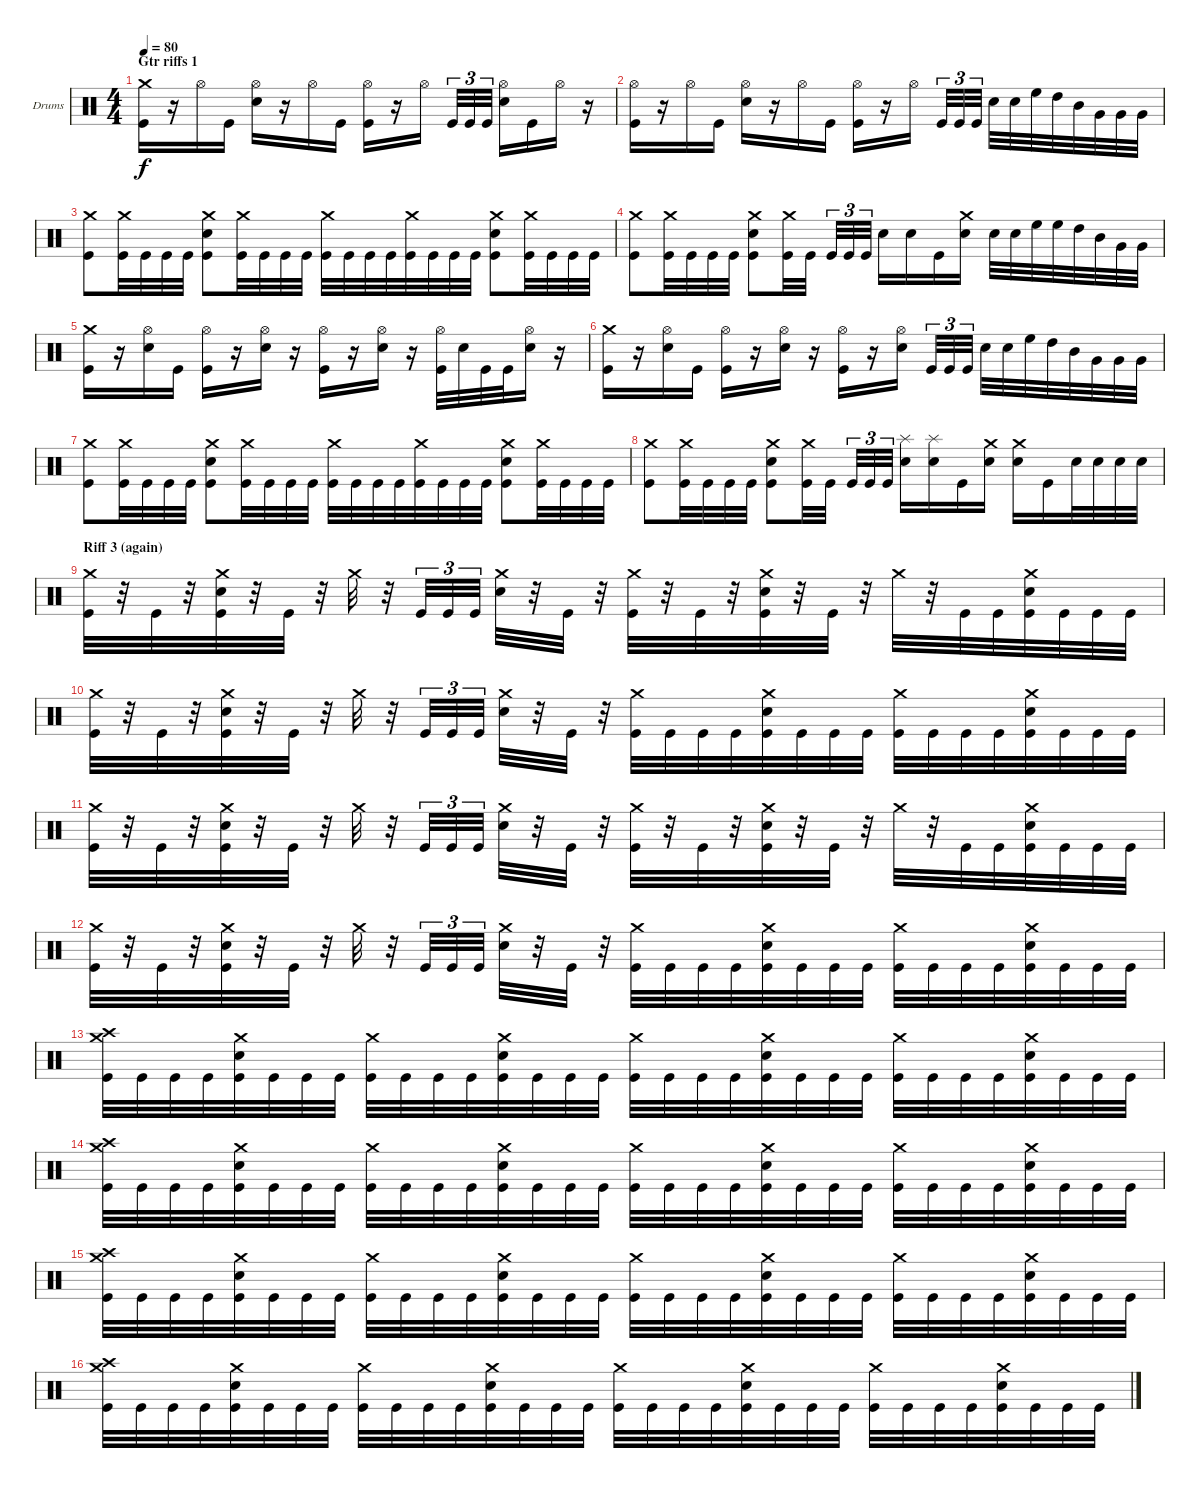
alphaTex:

\bracketExtendMode groupsimilarinstruments
\firstSystemTrackNameOrientation horizontal
\otherSystemsTrackNameOrientation horizontal
\track ("Drumkit" "Drums") {instrument percussion}
\staff {score}
\articulation defaults
\ts (4 4)
\section ("" "Gtr riffs 1")
\tempo 80
\clef neutral
\ks c
("Crash medium (hit)" "Kick (hit)").16{dy f} r.16 "Hi-Hat (open)".16 "Kick (hit)".16 ("Hi-Hat (open)" "Snare (hit) 2").16 r.16 "Hi-Hat (open)".16 "Kick (hit)".16 ("Hi-Hat (open)" "Kick (hit)").16 r.16 "Hi-Hat (open)".16 "Kick (hit)".32{tu (3 2)} "Kick (hit)".32{tu (3 2)} "Kick (hit)".32{tu (3 2)} ("Hi-Hat (open)" "Snare (hit) 2").16 "Kick (hit)".16 "Hi-Hat (open)".16 r.16 |
("Hi-Hat (open)" "Kick (hit)").16 r.16 "Hi-Hat (open)".16 "Kick (hit)".16 ("Hi-Hat (open)" "Snare (hit) 2").16 r.16 "Hi-Hat (open)".16 "Kick (hit)".16 ("Hi-Hat (open)" "Kick (hit)").16 r.16 "Hi-Hat (open)".16 "Kick (hit)".32{tu (3 2)} "Kick (hit)".32{tu (3 2)} "Kick (hit)".32{tu (3 2)} "Snare (hit) 2".32 "Snare (hit) 2".32 "High Floor Tom (hit)".32 "High Tom (hit)".32 "Mid Tom (hit)".32 "Very Low Tom (hit)".32 "Very Low Tom (hit)".32 "Very Low Tom (hit)".32 |
("Crash medium (hit)" "Kick (hit)").8 ("Crash medium (hit)" "Kick (hit)").32 "Kick (hit)".32 "Kick (hit)".32 "Kick (hit)".32 ("Crash medium (hit)" "Snare (hit) 2" "Kick (hit)").8 ("Crash medium (hit)" "Kick (hit)").32 "Kick (hit)".32 "Kick (hit)".32 "Kick (hit)".32 ("Crash medium (hit)" "Kick (hit)").32 "Kick (hit)".32 "Kick (hit)".32 "Kick (hit)".32 ("Crash medium (hit)" "Kick (hit)").32 "Kick (hit)".32 "Kick (hit)".32 "Kick (hit)".32 ("Crash medium (hit)" "Snare (hit) 2" "Kick (hit)").8 ("Crash medium (hit)" "Kick (hit)").32 "Kick (hit)".32 "Kick (hit)".32 "Kick (hit)".32 |
("Crash medium (hit)" "Kick (hit)").8 ("Crash medium (hit)" "Kick (hit)").32 "Kick (hit)".32 "Kick (hit)".32 "Kick (hit)".32 ("Crash medium (hit)" "Snare (hit) 2" "Kick (hit)").8 ("Crash medium (hit)" "Kick (hit)").32 "Kick (hit)".32 "Kick (hit)".32{tu (3 2)} "Kick (hit)".32{tu (3 2)} "Kick (hit)".32{tu (3 2)} "Snare (hit) 2".16 "Snare (hit) 2".16 "Kick (hit)".16 ("Crash medium (hit)" "Snare (hit) 2").16 "Snare (hit) 2".32 "Snare (hit) 2".32 "High Floor Tom (hit)".32 "High Floor Tom (hit)".32 "High Tom (hit)".32 "Mid Tom (hit)".32 "Very Low Tom (hit)".32 "Very Low Tom (hit)".32 |
("Crash medium (hit)" "Kick (hit)").16 r.16 ("Hi-Hat (open)" "Snare (hit) 2").16 "Kick (hit)".16 ("Hi-Hat (open)" "Kick (hit)").16 r.16 ("Hi-Hat (open)" "Snare (hit) 2").16 r.16 ("Hi-Hat (open)" "Kick (hit)").16 r.16 ("Hi-Hat (open)" "Snare (hit) 2").16 r.16 ("Hi-Hat (open)" "Kick (hit)").32 "Snare (hit) 2".32 "Kick (hit)".32 "Kick (hit)".32 ("Hi-Hat (open)" "Snare (hit) 2").16 r.16 |
("Crash medium (hit)" "Kick (hit)").16 r.16 ("Hi-Hat (open)" "Snare (hit) 2").16 "Kick (hit)".16 ("Hi-Hat (open)" "Kick (hit)").16 r.16 ("Hi-Hat (open)" "Snare (hit) 2").16 r.16 ("Hi-Hat (open)" "Kick (hit)").16 r.16 ("Hi-Hat (open)" "Snare (hit) 2").16 "Kick (hit)".32{tu (3 2)} "Kick (hit)".32{tu (3 2)} "Kick (hit)".32{tu (3 2)} "Snare (hit) 2".32 "Snare (hit) 2".32 "High Floor Tom (hit)".32 "High Tom (hit)".32 "Mid Tom (hit)".32 "Very Low Tom (hit)".32 "Very Low Tom (hit)".32 "Very Low Tom (hit)".32 |
("Crash medium (hit)" "Kick (hit)").8 ("Crash medium (hit)" "Kick (hit)").32 "Kick (hit)".32 "Kick (hit)".32 "Kick (hit)".32 ("Crash medium (hit)" "Snare (hit) 2" "Kick (hit)").8 ("Crash medium (hit)" "Kick (hit)").32 "Kick (hit)".32 "Kick (hit)".32 "Kick (hit)".32 ("Crash medium (hit)" "Kick (hit)").32 "Kick (hit)".32 "Kick (hit)".32 "Kick (hit)".32 ("Crash medium (hit)" "Kick (hit)").32 "Kick (hit)".32 "Kick (hit)".32 "Kick (hit)".32 ("Crash medium (hit)" "Snare (hit) 2" "Kick (hit)").8 ("Crash medium (hit)" "Kick (hit)").32 "Kick (hit)".32 "Kick (hit)".32 "Kick (hit)".32 |
("Crash medium (hit)" "Kick (hit)").8 ("Crash medium (hit)" "Kick (hit)").32 "Kick (hit)".32 "Kick (hit)".32 "Kick (hit)".32 ("Crash medium (hit)" "Snare (hit) 2" "Kick (hit)").8 ("Crash medium (hit)" "Kick (hit)").32 "Kick (hit)".32 "Kick (hit)".32{tu (3 2)} "Kick (hit)".32{tu (3 2)} "Kick (hit)".32{tu (3 2)} ("Splash (hit)" "Snare (hit) 2").16 ("Splash (hit)" "Snare (hit) 2").16 "Kick (hit)".16 ("Crash medium (hit)" "Snare (hit) 2").16 ("Crash medium (hit)" "Snare (hit) 2").16 "Kick (hit)".16 "Snare (hit) 2".32 "Snare (hit) 2".32 "Snare (hit) 2".32 "Snare (hit) 2".32 |
\section ("" "Riff 3 (again)")
("Crash medium (hit)" "Kick (hit)").32 r.32 "Kick (hit)".32 r.32 ("Crash medium (hit)" "Snare (hit) 2" "Kick (hit)").32 r.32 "Kick (hit)".32 r.32 "Crash medium (hit)".32 r.32 "Kick (hit)".32{tu (3 2)} "Kick (hit)".32{tu (3 2)} "Kick (hit)".32{tu (3 2)} ("Crash medium (hit)" "Snare (hit) 2").32 r.32 "Kick (hit)".32 r.32 ("Crash medium (hit)" "Kick (hit)").32 r.32 "Kick (hit)".32 r.32 ("Crash medium (hit)" "Snare (hit) 2" "Kick (hit)").32 r.32 "Kick (hit)".32 r.32 "Crash medium (hit)".32 r.32 "Kick (hit)".32 "Kick (hit)".32 ("Crash medium (hit)" "Snare (hit) 2" "Kick (hit)").32 "Kick (hit)".32 "Kick (hit)".32 "Kick (hit)".32 |
("Crash medium (hit)" "Kick (hit)").32 r.32 "Kick (hit)".32 r.32 ("Crash medium (hit)" "Snare (hit) 2" "Kick (hit)").32 r.32 "Kick (hit)".32 r.32 "Crash medium (hit)".32 r.32 "Kick (hit)".32{tu (3 2)} "Kick (hit)".32{tu (3 2)} "Kick (hit)".32{tu (3 2)} ("Crash medium (hit)" "Snare (hit) 2").32 r.32 "Kick (hit)".32 r.32 ("Crash medium (hit)" "Kick (hit)").32 "Kick (hit)".32 "Kick (hit)".32 "Kick (hit)".32 ("Crash medium (hit)" "Snare (hit) 2" "Kick (hit)").32 "Kick (hit)".32 "Kick (hit)".32 "Kick (hit)".32 ("Crash medium (hit)" "Kick (hit)").32 "Kick (hit)".32 "Kick (hit)".32 "Kick (hit)".32 ("Crash medium (hit)" "Snare (hit) 2" "Kick (hit)").32 "Kick (hit)".32 "Kick (hit)".32 "Kick (hit)".32 |
("Crash medium (hit)" "Kick (hit)").32 r.32 "Kick (hit)".32 r.32 ("Crash medium (hit)" "Snare (hit) 2" "Kick (hit)").32 r.32 "Kick (hit)".32 r.32 "Crash medium (hit)".32 r.32 "Kick (hit)".32{tu (3 2)} "Kick (hit)".32{tu (3 2)} "Kick (hit)".32{tu (3 2)} ("Crash medium (hit)" "Snare (hit) 2").32 r.32 "Kick (hit)".32 r.32 ("Crash medium (hit)" "Kick (hit)").32 r.32 "Kick (hit)".32 r.32 ("Crash medium (hit)" "Snare (hit) 2" "Kick (hit)").32 r.32 "Kick (hit)".32 r.32 "Crash medium (hit)".32 r.32 "Kick (hit)".32 "Kick (hit)".32 ("Crash medium (hit)" "Snare (hit) 2" "Kick (hit)").32 "Kick (hit)".32 "Kick (hit)".32 "Kick (hit)".32 |
("Crash medium (hit)" "Kick (hit)").32 r.32 "Kick (hit)".32 r.32 ("Crash medium (hit)" "Snare (hit) 2" "Kick (hit)").32 r.32 "Kick (hit)".32 r.32 "Crash medium (hit)".32 r.32 "Kick (hit)".32{tu (3 2)} "Kick (hit)".32{tu (3 2)} "Kick (hit)".32{tu (3 2)} ("Crash medium (hit)" "Snare (hit) 2").32 r.32 "Kick (hit)".32 r.32 ("Crash medium (hit)" "Kick (hit)").32 "Kick (hit)".32 "Kick (hit)".32 "Kick (hit)".32 ("Crash medium (hit)" "Snare (hit) 2" "Kick (hit)").32 "Kick (hit)".32 "Kick (hit)".32 "Kick (hit)".32 ("Crash medium (hit)" "Kick (hit)").32 "Kick (hit)".32 "Kick (hit)".32 "Kick (hit)".32 ("Crash medium (hit)" "Snare (hit) 2" "Kick (hit)").32 "Kick (hit)".32 "Kick (hit)".32 "Kick (hit)".32 |
("Crash medium (hit)" "Crash high (hit)" "Kick (hit)").32 "Kick (hit)".32 "Kick (hit)".32 "Kick (hit)".32 ("Crash medium (hit)" "Snare (hit) 2" "Kick (hit)").32 "Kick (hit)".32 "Kick (hit)".32 "Kick (hit)".32 ("Crash medium (hit)" "Kick (hit)").32 "Kick (hit)".32 "Kick (hit)".32 "Kick (hit)".32 ("Crash medium (hit)" "Snare (hit) 2" "Kick (hit)").32 "Kick (hit)".32 "Kick (hit)".32 "Kick (hit)".32 ("Crash medium (hit)" "Kick (hit)").32 "Kick (hit)".32 "Kick (hit)".32 "Kick (hit)".32 ("Crash medium (hit)" "Snare (hit) 2" "Kick (hit)").32 "Kick (hit)".32 "Kick (hit)".32 "Kick (hit)".32 ("Crash medium (hit)" "Kick (hit)").32 "Kick (hit)".32 "Kick (hit)".32 "Kick (hit)".32 ("Crash medium (hit)" "Snare (hit) 2" "Kick (hit)").32 "Kick (hit)".32 "Kick (hit)".32 "Kick (hit)".32 |
("Crash medium (hit)" "Crash high (hit)" "Kick (hit)").32 "Kick (hit)".32 "Kick (hit)".32 "Kick (hit)".32 ("Crash medium (hit)" "Snare (hit) 2" "Kick (hit)").32 "Kick (hit)".32 "Kick (hit)".32 "Kick (hit)".32 ("Crash medium (hit)" "Kick (hit)").32 "Kick (hit)".32 "Kick (hit)".32 "Kick (hit)".32 ("Crash medium (hit)" "Snare (hit) 2" "Kick (hit)").32 "Kick (hit)".32 "Kick (hit)".32 "Kick (hit)".32 ("Crash medium (hit)" "Kick (hit)").32 "Kick (hit)".32 "Kick (hit)".32 "Kick (hit)".32 ("Crash medium (hit)" "Snare (hit) 2" "Kick (hit)").32 "Kick (hit)".32 "Kick (hit)".32 "Kick (hit)".32 ("Crash medium (hit)" "Kick (hit)").32 "Kick (hit)".32 "Kick (hit)".32 "Kick (hit)".32 ("Crash medium (hit)" "Snare (hit) 2" "Kick (hit)").32 "Kick (hit)".32 "Kick (hit)".32 "Kick (hit)".32 |
("Crash medium (hit)" "Crash high (hit)" "Kick (hit)").32 "Kick (hit)".32 "Kick (hit)".32 "Kick (hit)".32 ("Crash medium (hit)" "Snare (hit) 2" "Kick (hit)").32 "Kick (hit)".32 "Kick (hit)".32 "Kick (hit)".32 ("Crash medium (hit)" "Kick (hit)").32 "Kick (hit)".32 "Kick (hit)".32 "Kick (hit)".32 ("Crash medium (hit)" "Snare (hit) 2" "Kick (hit)").32 "Kick (hit)".32 "Kick (hit)".32 "Kick (hit)".32 ("Crash medium (hit)" "Kick (hit)").32 "Kick (hit)".32 "Kick (hit)".32 "Kick (hit)".32 ("Crash medium (hit)" "Snare (hit) 2" "Kick (hit)").32 "Kick (hit)".32 "Kick (hit)".32 "Kick (hit)".32 ("Crash medium (hit)" "Kick (hit)").32 "Kick (hit)".32 "Kick (hit)".32 "Kick (hit)".32 ("Crash medium (hit)" "Snare (hit) 2" "Kick (hit)").32 "Kick (hit)".32 "Kick (hit)".32 "Kick (hit)".32 |
("Crash medium (hit)" "Crash high (hit)" "Kick (hit)").32 "Kick (hit)".32 "Kick (hit)".32 "Kick (hit)".32 ("Crash medium (hit)" "Snare (hit) 2" "Kick (hit)").32 "Kick (hit)".32 "Kick (hit)".32 "Kick (hit)".32 ("Crash medium (hit)" "Kick (hit)").32 "Kick (hit)".32 "Kick (hit)".32 "Kick (hit)".32 ("Crash medium (hit)" "Snare (hit) 2" "Kick (hit)").32 "Kick (hit)".32 "Kick (hit)".32 "Kick (hit)".32 ("Crash medium (hit)" "Kick (hit)").32 "Kick (hit)".32 "Kick (hit)".32 "Kick (hit)".32 ("Crash medium (hit)" "Snare (hit) 2" "Kick (hit)").32 "Kick (hit)".32 "Kick (hit)".32 "Kick (hit)".32 ("Crash medium (hit)" "Kick (hit)").32 "Kick (hit)".32 "Kick (hit)".32 "Kick (hit)".32 ("Crash medium (hit)" "Snare (hit) 2" "Kick (hit)").32 "Kick (hit)".32 "Kick (hit)".32 "Kick (hit)".32
